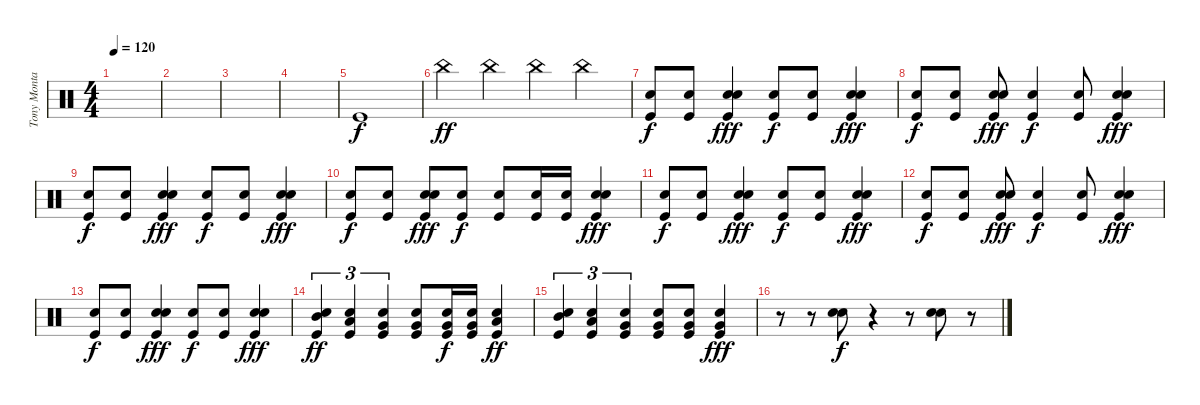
\track ("Tony Montana" "Tony Monta") {instrument percussion}
\staff {score}
\articulation defaults
\ts (4 4)
\tempo 120
\clef neutral
\ks c
|
|
|
|
"Kick (hit)".1 |
"China (hit)".4{dy ff} "China (hit)".4 "China (hit)".4 "China (hit)".4 |
("Kick (hit)" "Snare (hit) 2").8{dy f} ("Kick (hit)" "Snare (hit) 2").8 ("Kick (hit)" "Snare (hit) 2" "Snare (hit) 2").4{dy fff} ("Kick (hit)" "Snare (hit) 2").8{dy f} ("Kick (hit)" "Snare (hit) 2").8 ("Kick (hit)" "Snare (hit) 2" "Snare (hit) 2").4{dy fff} |
("Kick (hit)" "Snare (hit) 2").8{dy f} ("Kick (hit)" "Snare (hit) 2").8 ("Kick (hit)" "Snare (hit) 2" "Snare (hit) 2").8{dy fff} ("Kick (hit)" "Snare (hit) 2").4{dy f} ("Kick (hit)" "Snare (hit) 2").8 ("Kick (hit)" "Snare (hit) 2" "Snare (hit) 2").4{dy fff} |
("Kick (hit)" "Snare (hit) 2").8{dy f} ("Kick (hit)" "Snare (hit) 2").8 ("Kick (hit)" "Snare (hit) 2" "Snare (hit) 2").4{dy fff} ("Kick (hit)" "Snare (hit) 2").8{dy f} ("Kick (hit)" "Snare (hit) 2").8 ("Kick (hit)" "Snare (hit) 2" "Snare (hit) 2").4{dy fff} |
("Kick (hit)" "Snare (hit) 2").8{dy f} ("Kick (hit)" "Snare (hit) 2").8 ("Kick (hit)" "Snare (hit) 2" "Snare (hit) 2").8{dy fff} ("Kick (hit)" "Snare (hit) 2").8{dy f} ("Kick (hit)" "Snare (hit) 2").8 ("Kick (hit)" "Snare (hit) 2").16 ("Kick (hit)" "Snare (hit) 2").16 ("Kick (hit)" "Snare (hit) 2" "Snare (hit) 2").4{dy fff} |
("Kick (hit)" "Snare (hit) 2").8{dy f} ("Kick (hit)" "Snare (hit) 2").8 ("Kick (hit)" "Snare (hit) 2" "Snare (hit) 2").4{dy fff} ("Kick (hit)" "Snare (hit) 2").8{dy f} ("Kick (hit)" "Snare (hit) 2").8 ("Kick (hit)" "Snare (hit) 2" "Snare (hit) 2").4{dy fff} |
("Kick (hit)" "Snare (hit) 2").8{dy f} ("Kick (hit)" "Snare (hit) 2").8 ("Kick (hit)" "Snare (hit) 2" "Snare (hit) 2").8{dy fff} ("Kick (hit)" "Snare (hit) 2").4{dy f} ("Kick (hit)" "Snare (hit) 2").8 ("Kick (hit)" "Snare (hit) 2" "Snare (hit) 2").4{dy fff} |
("Kick (hit)" "Snare (hit) 2").8{dy f} ("Kick (hit)" "Snare (hit) 2").8 ("Kick (hit)" "Snare (hit) 2" "Snare (hit) 2").4{dy fff} ("Kick (hit)" "Snare (hit) 2").8{dy f} ("Kick (hit)" "Snare (hit) 2").8 ("Kick (hit)" "Snare (hit) 2" "Snare (hit) 2").4{dy fff} |
("Kick (hit)" "Snare (hit) 2" "Mid Tom (hit)").4{tu (3 2) dy ff} ("Kick (hit)" "Snare (hit) 2" "Low Tom (hit)").4{tu (3 2)} ("Kick (hit)" "Snare (hit) 2" "Very Low Tom (hit)").4{tu (3 2)} ("Kick (hit)" "Snare (hit) 2" "Very Low Tom (hit)").8 ("Kick (hit)" "Snare (hit) 2" "Very Low Tom (hit)").16{dy f} ("Kick (hit)" "Snare (hit) 2" "Very Low Tom (hit)").16 ("Kick (hit)" "Snare (hit) 2" "Low Floor Tom (hit)").4{dy ff} |
("Kick (hit)" "Snare (hit) 2" "Mid Tom (hit)").4{tu (3 2)} ("Kick (hit)" "Snare (hit) 2" "Low Tom (hit)").4{tu (3 2)} ("Kick (hit)" "Snare (hit) 2" "Very Low Tom (hit)").4{tu (3 2)} ("Kick (hit)" "Snare (hit) 2" "Very Low Tom (hit)").8 ("Kick (hit)" "Snare (hit) 2" "Very Low Tom (hit)").8 ("Kick (hit)" "Snare (hit) 2" "Very Low Tom (hit)").4{dy fff} |
r.8 r.8 ("Snare (hit) 2" "Snare (hit) 2").8{dy f} r.4 r.8 ("Snare (hit) 2" "Snare (hit) 2").8 r.8
